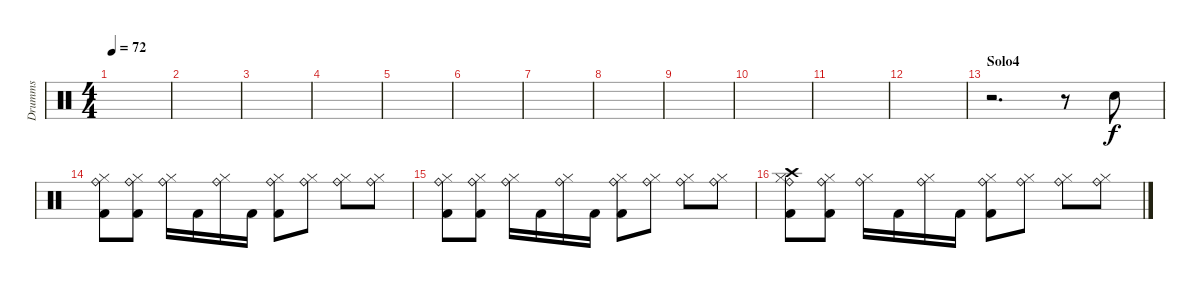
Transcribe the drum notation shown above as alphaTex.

\track ("Drumms" "Drumms") {instrument percussion}
\staff {score}
\articulation defaults
\ts (4 4)
\tempo 72
\clef neutral
\ks c
|
|
|
|
|
|
|
|
|
|
|
|
\section ("" "Solo4")
r.2{d} r.8 "Electric Snare (hit)".8 |
("Hi-Hat (closed)" "Ride (bell)" "Kick (hit) 2").8 ("Hi-Hat (closed)" "Ride (bell)" "Kick (hit) 2").8 ("Hi-Hat (closed)" "Ride (bell)").16 "Kick (hit) 2".16 ("Hi-Hat (closed)" "Ride (bell)").16 "Kick (hit) 2".16 ("Hi-Hat (closed)" "Ride (bell)" "Kick (hit) 2").8 ("Hi-Hat (closed)" "Ride (bell)").8 ("Hi-Hat (closed)" "Ride (bell)").8 ("Hi-Hat (closed)" "Ride (bell)").8 |
("Hi-Hat (closed)" "Ride (bell)" "Kick (hit) 2").8 ("Hi-Hat (closed)" "Ride (bell)" "Kick (hit) 2").8 ("Hi-Hat (closed)" "Ride (bell)").16 "Kick (hit) 2".16 ("Hi-Hat (closed)" "Ride (bell)").16 "Kick (hit) 2".16 ("Hi-Hat (closed)" "Ride (bell)" "Kick (hit) 2").8 ("Hi-Hat (closed)" "Ride (bell)").8 ("Hi-Hat (closed)" "Ride (bell)").8 ("Hi-Hat (closed)" "Ride (bell)").8 |
("Hi-Hat (closed)" "Ride (bell)" "Crash high (hit)" "Kick (hit) 2").8 ("Hi-Hat (closed)" "Ride (bell)" "Kick (hit) 2").8 ("Hi-Hat (closed)" "Ride (bell)").16 "Kick (hit) 2".16 ("Hi-Hat (closed)" "Ride (bell)").16 "Kick (hit) 2".16 ("Hi-Hat (closed)" "Ride (bell)" "Kick (hit) 2").8 ("Hi-Hat (closed)" "Ride (bell)").8 ("Hi-Hat (closed)" "Ride (bell)").8 ("Hi-Hat (closed)" "Ride (bell)").8
